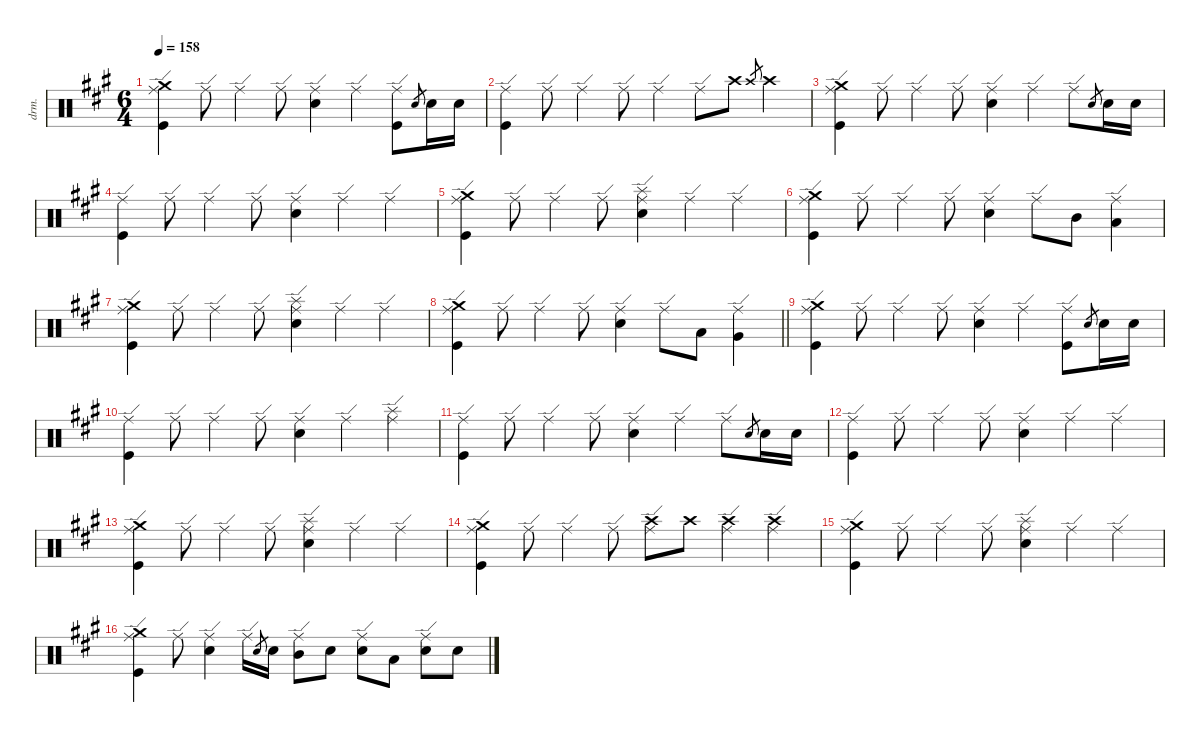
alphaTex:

\defaultSystemsLayout 4
\hideDynamics
\bracketExtendMode groupsimilarinstruments
\otherSystemsTrackNameOrientation horizontal
\track ("Drums" "drm.") {defaultSystemsLayout 4 instrument percussion}
\staff {score}
\articulation defaults
\ts (6 4)
\tempo 158
\clef neutral
\ks f#minor
("Crash medium (hit)"{acc forcenatural} "Ride (edge)"{acc forcenatural} "Kick (hit)"{acc forcenatural}).4{dy f beam Down} "Ride (edge)"{acc forcenatural}.8{dy p beam Down} "Ride (edge)"{acc forcenatural}.4{beam Down} "Ride (edge)"{acc forcenatural}.8{beam Down} ("Ride (edge)"{acc forcenatural} "Snare (hit) 2"{acc forcenatural}).4{dy f beam Down} "Ride (edge)"{acc forcenatural}.4{dy mf beam Down} ("Ride (edge)"{acc forcenatural} "Kick (hit)"{acc forcenatural}).8{dy f beam Down} "Electric Snare (hit)"{acc forcenatural}.8{gr dy ppp beam Up} "Snare (hit) 2"{acc forcenatural}.16{dy p beam Down} "Snare (hit) 2"{acc forcenatural}.16{beam Down} |
("Ride (edge)"{acc forcenatural} "Kick (hit)"{acc forcenatural}).4{dy f beam Down} "Ride (edge)"{acc forcenatural}.8{dy mf beam Down} "Ride (edge)"{acc forcenatural}.4{beam Down} "Ride (edge)"{acc forcenatural}.8{dy mp beam Down} "Ride (edge)"{acc forcenatural}.4{dy p beam Down} "Ride (edge)"{acc forcenatural}.8{beam Down} "Crash high (hit)"{acc forcenatural}.8{beam Down} "Crash high (hit)"{acc forcenatural}.8{gr dy pp beam Up} "Crash high (hit)"{acc forcenatural}.4{dy mp beam Down} |
("Crash medium (hit)"{acc forcenatural} "Ride (edge)"{acc forcenatural} "Kick (hit)"{acc forcenatural}).4{dy f beam Down} "Ride (edge)"{acc forcenatural}.8{dy p beam Down} "Ride (edge)"{acc forcenatural}.4{beam Down} "Ride (edge)"{acc forcenatural}.8{beam Down} ("Ride (edge)"{acc forcenatural} "Snare (hit) 2"{acc forcenatural}).4{dy f beam Down} "Ride (edge)"{acc forcenatural}.4{dy mf beam Down} "Ride (edge)"{acc forcenatural}.8{dy p beam Down} "Electric Snare (hit)"{acc forcenatural}.8{gr dy ppp beam Up} "Snare (hit) 2"{acc forcenatural}.16{dy p beam Down} "Snare (hit) 2"{acc forcenatural}.16{beam Down} |
("Ride (edge)"{acc forcenatural} "Kick (hit)"{acc forcenatural}).4{dy f beam Down} "Ride (edge)"{acc forcenatural}.8{dy mf beam Down} "Ride (edge)"{acc forcenatural}.4{dy mp beam Down} "Ride (edge)"{acc forcenatural}.8{dy p beam Down} ("Ride (edge)"{acc forcenatural} "Snare (hit) 2"{acc forcenatural}).4{dy f beam Down} "Ride (edge)"{acc forcenatural}.4{dy mf beam Down} "Ride (edge)"{acc forcenatural}.4{dy p beam Down} |
("Crash medium (hit)"{acc forcenatural} "Ride (edge)"{acc forcenatural} "Kick (hit)"{acc forcenatural}).4{dy f beam Down} "Ride (edge)"{acc forcenatural}.8{dy p beam Down} "Ride (edge)"{acc forcenatural}.4{beam Down} "Ride (edge)"{acc forcenatural}.8{beam Down} ("Splash (hit)"{acc forcenatural} "Ride (edge)"{acc forcenatural} "Snare (hit) 2"{acc forcenatural}).4{dy mf beam Down} "Ride (edge)"{acc forcenatural}.4{beam Down} "Ride (edge)"{acc forcenatural}.4{dy p beam Down} |
("Crash medium (hit)"{acc forcenatural} "Ride (edge)"{acc forcenatural} "Kick (hit)"{acc forcenatural}).4{dy f beam Down} "Ride (edge)"{acc forcenatural}.8{dy mf beam Down} "Ride (edge)"{acc forcenatural}.4{dy mp beam Down} "Ride (edge)"{acc forcenatural}.8{dy p beam Down} ("Ride (edge)"{acc forcenatural} "Snare (hit) 2"{acc forcenatural}).4{dy f beam Down} "Ride (edge)"{acc forcenatural}.8{dy mf beam Down} "Mid Tom (hit)"{acc forcenatural}.8{dy f beam Down} ("Ride (edge)"{acc forcenatural} "Low Tom (hit)"{acc forcenatural}).4{beam Down} |
("Crash medium (hit)"{acc forcenatural} "Ride (edge)"{acc forcenatural} "Kick (hit)"{acc forcenatural}).4{beam Down} "Ride (edge)"{acc forcenatural}.8{dy mf beam Down} "Ride (edge)"{acc forcenatural}.4{dy mp beam Down} "Ride (edge)"{acc forcenatural}.8{dy p beam Down} ("Splash (hit)"{acc forcenatural} "Ride (edge)"{acc forcenatural} "Snare (hit) 2"{acc forcenatural}).4{dy mf beam Down} "Ride (edge)"{acc forcenatural}.4{beam Down} "Ride (edge)"{acc forcenatural}.4{dy p beam Down} |
\barLineRight lightlight
("Crash medium (hit)"{acc forcenatural} "Ride (edge)"{acc forcenatural} "Kick (hit)"{acc forcenatural}).4{dy f beam Down} "Ride (edge)"{acc forcenatural}.8{dy mf beam Down} "Ride (edge)"{acc forcenatural}.4{dy mp beam Down} "Ride (edge)"{acc forcenatural}.8{dy p beam Down} ("Ride (edge)"{acc forcenatural} "Snare (hit) 2"{acc forcenatural}).4{dy f beam Down} "Ride (edge)"{acc forcenatural}.8{dy p beam Down} "Low Tom (hit)"{acc forcenatural}.8{dy f beam Up} ("Ride (edge)"{acc forcenatural} "Very Low Tom (hit)"{acc forcenatural}).4{beam Down} |
("Crash medium (hit)"{acc forcenatural} "Ride (edge)"{acc forcenatural} "Kick (hit)"{acc forcenatural}).4{beam Down} "Ride (edge)"{acc forcenatural}.8{dy p beam Down} "Ride (edge)"{acc forcenatural}.4{beam Down} "Ride (edge)"{acc forcenatural}.8{beam Down} ("Ride (edge)"{acc forcenatural} "Snare (hit) 2"{acc forcenatural}).4{dy f beam Down} "Ride (edge)"{acc forcenatural}.4{dy p beam Down} ("Ride (edge)"{acc forcenatural} "Kick (hit)"{acc forcenatural}).8{dy f beam Down} "Electric Snare (hit)"{acc forcenatural}.8{gr dy ppp beam Up} "Snare (hit) 2"{acc forcenatural}.16{dy p beam Down} "Snare (hit) 2"{acc forcenatural}.16{beam Down} |
("Ride (edge)"{acc forcenatural} "Kick (hit)"{acc forcenatural}).4{dy f beam Down} "Ride (edge)"{acc forcenatural}.8{dy p beam Down} "Ride (edge)"{acc forcenatural}.4{beam Down} "Ride (edge)"{acc forcenatural}.8{beam Down} ("Ride (edge)"{acc forcenatural} "Snare (hit) 2"{acc forcenatural}).4{dy f beam Down} "Ride (edge)"{acc forcenatural}.4{dy p beam Down} ("Splash (hit)"{acc forcenatural} "Ride (edge)"{acc forcenatural}).4{dy mf beam Down} |
("Ride (edge)"{acc forcenatural} "Kick (hit)"{acc forcenatural}).4{dy f beam Down} "Ride (edge)"{acc forcenatural}.8{dy p beam Down} "Ride (edge)"{acc forcenatural}.4{beam Down} "Ride (edge)"{acc forcenatural}.8{beam Down} ("Ride (edge)"{acc forcenatural} "Snare (hit) 2"{acc forcenatural}).4{dy f beam Down} "Ride (edge)"{acc forcenatural}.4{dy p beam Down} "Ride (edge)"{acc forcenatural}.8{beam Down} "Electric Snare (hit)"{acc forcenatural}.8{gr dy ppp beam Up} "Snare (hit) 2"{acc forcenatural}.16{dy p beam Down} "Snare (hit) 2"{acc forcenatural}.16{beam Down} |
("Ride (edge)"{acc forcenatural} "Kick (hit)"{acc forcenatural}).4{dy f beam Down} "Ride (edge)"{acc forcenatural}.8{dy p beam Down} "Ride (edge)"{acc forcenatural}.4{beam Down} "Ride (edge)"{acc forcenatural}.8{beam Down} ("Ride (edge)"{acc forcenatural} "Snare (hit) 2"{acc forcenatural}).4{dy f beam Down} "Ride (edge)"{acc forcenatural}.4{dy p beam Down} "Ride (edge)"{acc forcenatural}.4{beam Down} |
("Crash medium (hit)"{acc forcenatural} "Ride (edge)"{acc forcenatural} "Kick (hit)"{acc forcenatural}).4{dy f beam Down} "Ride (edge)"{acc forcenatural}.8{dy mf beam Down} "Ride (edge)"{acc forcenatural}.4{dy mp beam Down} "Ride (edge)"{acc forcenatural}.8{dy p beam Down} ("Splash (hit)"{acc forcenatural} "Ride (edge)"{acc forcenatural} "Snare (hit) 2"{acc forcenatural}).4{dy mf beam Down} "Ride (edge)"{acc forcenatural}.4{beam Down} "Ride (edge)"{acc forcenatural}.4{dy mp beam Down} |
("Crash medium (hit)"{acc forcenatural} "Ride (edge)"{acc forcenatural} "Kick (hit)"{acc forcenatural}).4{dy f beam Down} "Ride (edge)"{acc forcenatural}.8{dy mf beam Down} "Ride (edge)"{acc forcenatural}.4{dy mp beam Down} "Ride (edge)"{acc forcenatural}.8{dy p beam Down} ("Crash high (hit)"{acc forcenatural} "Ride (edge)"{acc forcenatural}).8{dy mp beam Down} "Crash high (hit)"{acc forcenatural}.8{dy mf beam Down} ("Crash high (hit)"{acc forcenatural} "Ride (edge)"{acc forcenatural}).4{dy mp beam Down} ("Crash high (hit)"{acc forcenatural} "Ride (edge)"{acc forcenatural}).4{dy mf beam Down} |
("Crash medium (hit)"{acc forcenatural} "Ride (edge)"{acc forcenatural} "Kick (hit)"{acc forcenatural}).4{dy f beam Down} "Ride (edge)"{acc forcenatural}.8{dy p beam Down} "Ride (edge)"{acc forcenatural}.4{beam Down} "Ride (edge)"{acc forcenatural}.8{beam Down} ("Splash (hit)"{acc forcenatural} "Ride (edge)"{acc forcenatural} "Snare (hit) 2"{acc forcenatural}).4{dy mf beam Down} "Ride (edge)"{acc forcenatural}.4{beam Down} "Ride (edge)"{acc forcenatural}.4{dy mp beam Down} |
("Crash medium (hit)"{acc forcenatural} "Ride (edge)"{acc forcenatural} "Kick (hit)"{acc forcenatural}).4{dy f beam Down} "Ride (edge)"{acc forcenatural}.8{dy p beam Down} ("Ride (edge)"{acc forcenatural} "Snare (hit) 2"{acc forcenatural}).4{dy f beam Down} "Ride (edge)"{acc forcenatural}.16{dy p beam Down} "Electric Snare (hit)"{acc forcenatural}.8{gr dy pp beam Up} "Snare (hit) 2"{acc forcenatural}.16{dy mp beam Down} ("Ride (edge)"{acc forcenatural} "Mid Tom (hit)"{acc forcenatural}).8{dy f beam Down} "Snare (hit) 2"{acc forcenatural}.8{dy p beam Down} ("Ride (edge)"{acc forcenatural} "Snare (hit) 2"{acc forcenatural}).8{dy f beam Down} "Low Tom (hit)"{acc forcenatural}.8{beam Down} ("Ride (edge)"{acc forcenatural} "Snare (hit) 2"{acc forcenatural}).8{beam Down} "Snare (hit) 2"{acc forcenatural}.8{dy p beam Down}
